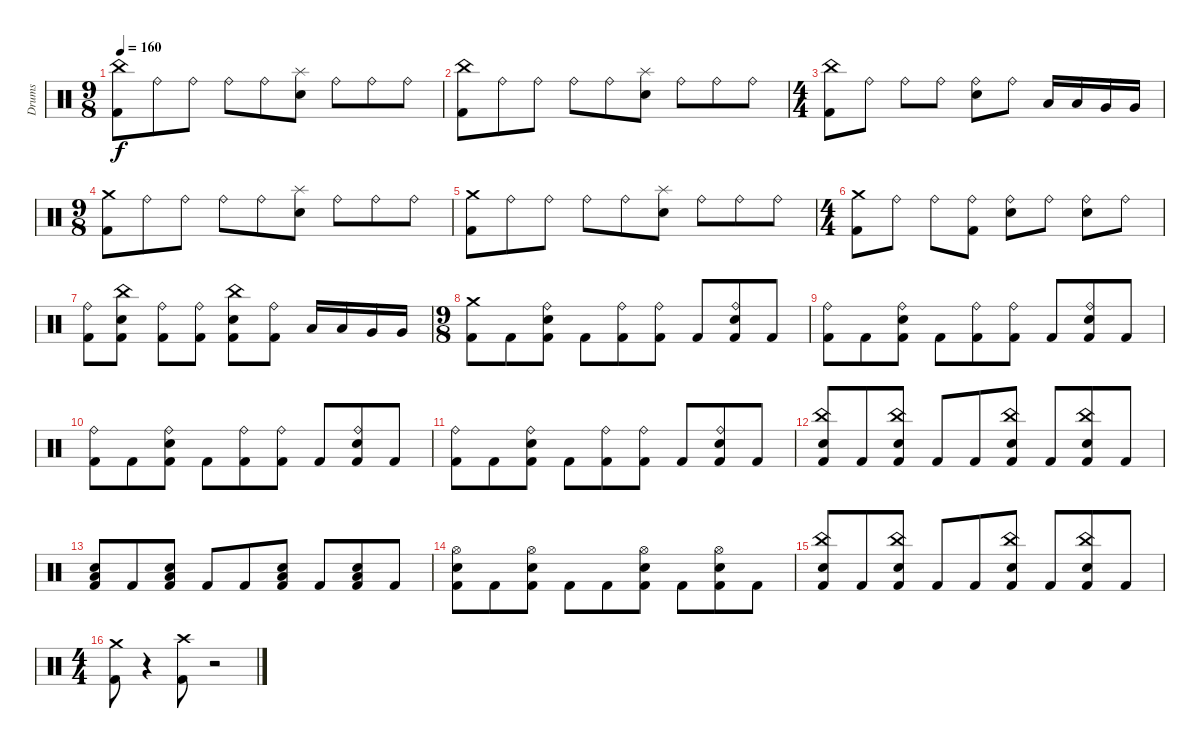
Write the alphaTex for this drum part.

\track ("Drums" "Drums") {instrument percussion}
\staff {score}
\articulation defaults
\ts (9 8)
\tempo 160
\clef neutral
\ks c
("Kick (hit) 2" "China (hit)").8{dy f} "Ride (bell)".8 "Ride (bell)".8 "Ride (bell)".8 "Ride (bell)".8 ("Splash (hit)" "Electric Snare (hit)").8 "Ride (bell)".8 "Ride (bell)".8 "Ride (bell)".8 |
("Kick (hit) 2" "China (hit)").8 "Ride (bell)".8 "Ride (bell)".8 "Ride (bell)".8 "Ride (bell)".8 ("Splash (hit)" "Electric Snare (hit)").8 "Ride (bell)".8 "Ride (bell)".8 "Ride (bell)".8 |
\ts (4 4)
("Kick (hit) 2" "China (hit)").8 "Ride (bell)".8 "Ride (bell)".8 "Ride (bell)".8 ("Electric Snare (hit)" "Ride (bell)").8 "Ride (bell)".8 "Low Tom (hit)".16 "Low Tom (hit)".16 "Very Low Tom (hit)".16 "Very Low Tom (hit)".16 |
\ts (9 8)
("Crash medium (hit)" "Kick (hit) 2").8 "Ride (bell)".8 "Ride (bell)".8 "Ride (bell)".8 "Ride (bell)".8 ("Splash (hit)" "Electric Snare (hit)").8 "Ride (bell)".8 "Ride (bell)".8 "Ride (bell)".8 |
("Crash medium (hit)" "Kick (hit) 2").8 "Ride (bell)".8 "Ride (bell)".8 "Ride (bell)".8 "Ride (bell)".8 ("Splash (hit)" "Electric Snare (hit)").8 "Ride (bell)".8 "Ride (bell)".8 "Ride (bell)".8 |
\ts (4 4)
("Crash medium (hit)" "Kick (hit) 2").8 "Ride (bell)".8 "Ride (bell)".8 ("Kick (hit) 2" "Ride (bell)").8 ("Electric Snare (hit)" "Ride (bell)").8 "Ride (bell)".8 ("Electric Snare (hit)" "Ride (bell)").8 "Ride (bell)".8 |
("Ride (bell)" "Kick (hit) 2").8 ("China (hit)" "Electric Snare (hit)" "Kick (hit) 2").8 ("Ride (bell)" "Kick (hit) 2").8 ("Ride (bell)" "Kick (hit) 2").8 ("China (hit)" "Electric Snare (hit)" "Kick (hit) 2").8 ("Ride (bell)" "Kick (hit) 2").8 "Low Tom (hit)".16 "Low Tom (hit)".16 "Very Low Tom (hit)".16 "Very Low Tom (hit)".16 |
\ts (9 8)
("Crash medium (hit)" "Kick (hit) 2").8 "Kick (hit) 2".8 ("Ride (bell)" "Electric Snare (hit)" "Kick (hit) 2").8 "Kick (hit) 2".8 ("Ride (bell)" "Kick (hit) 2").8 ("Ride (bell)" "Kick (hit) 2").8 "Kick (hit) 2".8 ("Ride (bell)" "Electric Snare (hit)" "Kick (hit) 2").8 "Kick (hit) 2".8 |
("Ride (bell)" "Kick (hit) 2").8 "Kick (hit) 2".8 ("Ride (bell)" "Electric Snare (hit)" "Kick (hit) 2").8 "Kick (hit) 2".8 ("Ride (bell)" "Kick (hit) 2").8 ("Ride (bell)" "Kick (hit) 2").8 "Kick (hit) 2".8 ("Ride (bell)" "Electric Snare (hit)" "Kick (hit) 2").8 "Kick (hit) 2".8 |
("Ride (bell)" "Kick (hit) 2").8 "Kick (hit) 2".8 ("Ride (bell)" "Electric Snare (hit)" "Kick (hit) 2").8 "Kick (hit) 2".8 ("Ride (bell)" "Kick (hit) 2").8 ("Ride (bell)" "Kick (hit) 2").8 "Kick (hit) 2".8 ("Ride (bell)" "Electric Snare (hit)" "Kick (hit) 2").8 "Kick (hit) 2".8 |
("Ride (bell)" "Kick (hit) 2").8 "Kick (hit) 2".8 ("Ride (bell)" "Electric Snare (hit)" "Kick (hit) 2").8 "Kick (hit) 2".8 ("Ride (bell)" "Kick (hit) 2").8 ("Ride (bell)" "Kick (hit) 2").8 "Kick (hit) 2".8 ("Ride (bell)" "Electric Snare (hit)" "Kick (hit) 2").8 "Kick (hit) 2".8 |
("Electric Snare (hit)" "China (hit)" "Kick (hit) 2").8 "Kick (hit) 2".8 ("Electric Snare (hit)" "China (hit)" "Kick (hit) 2").8 "Kick (hit) 2".8 "Kick (hit) 2".8 ("Electric Snare (hit)" "China (hit)" "Kick (hit) 2").8 "Kick (hit) 2".8 ("Electric Snare (hit)" "China (hit)" "Kick (hit) 2").8 "Kick (hit) 2".8 |
("Low Tom (hit)" "Electric Snare (hit)" "Kick (hit) 2").8 "Kick (hit) 2".8 ("Low Tom (hit)" "Electric Snare (hit)" "Kick (hit) 2").8 "Kick (hit) 2".8 "Kick (hit) 2".8 ("Low Tom (hit)" "Electric Snare (hit)" "Kick (hit) 2").8 "Kick (hit) 2".8 ("Low Tom (hit)" "Electric Snare (hit)" "Kick (hit) 2").8 "Kick (hit) 2".8 |
("Hi-Hat (open)" "Electric Snare (hit)" "Kick (hit) 2").8 "Kick (hit) 2".8 ("Hi-Hat (open)" "Electric Snare (hit)" "Kick (hit) 2").8 "Kick (hit) 2".8 "Kick (hit) 2".8 ("Hi-Hat (open)" "Electric Snare (hit)" "Kick (hit) 2").8 "Kick (hit) 2".8 ("Hi-Hat (open)" "Electric Snare (hit)" "Kick (hit) 2").8 "Kick (hit) 2".8 |
("Electric Snare (hit)" "China (hit)" "Kick (hit) 2").8 "Kick (hit) 2".8 ("Electric Snare (hit)" "China (hit)" "Kick (hit) 2").8 "Kick (hit) 2".8 "Kick (hit) 2".8 ("Electric Snare (hit)" "China (hit)" "Kick (hit) 2").8 "Kick (hit) 2".8 ("Electric Snare (hit)" "China (hit)" "Kick (hit) 2").8 "Kick (hit) 2".8 |
\ts (4 4)
("Crash medium (hit)" "Kick (hit) 2").8 r.4 ("Crash high (hit)" "Kick (hit) 2").8 r.2
